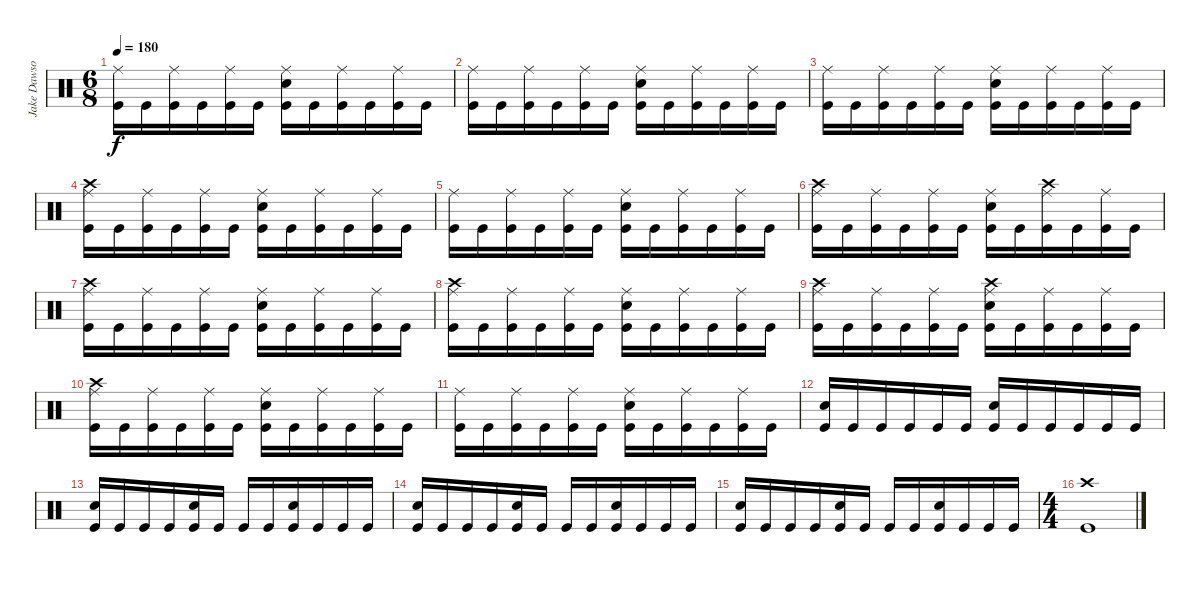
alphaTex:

\track ("Jake Dawson" "Jake Dawso") {instrument percussion}
\staff {score}
\articulation defaults
\ts (6 8)
\tempo 180
\clef neutral
\ks c
("Ride (middle)" "Kick (hit)").16{dy f} "Kick (hit)".16 ("Ride (middle)" "Kick (hit)").16 "Kick (hit)".16 ("Ride (middle)" "Kick (hit)").16 "Kick (hit)".16 ("Ride (middle)" "Snare (hit) 2" "Kick (hit)").16 "Kick (hit)".16 ("Ride (middle)" "Kick (hit)").16 "Kick (hit)".16 ("Ride (middle)" "Kick (hit)").16 "Kick (hit)".16 |
("Ride (middle)" "Kick (hit)").16 "Kick (hit)".16 ("Ride (middle)" "Kick (hit)").16 "Kick (hit)".16 ("Ride (middle)" "Kick (hit)").16 "Kick (hit)".16 ("Ride (middle)" "Snare (hit) 2" "Kick (hit)").16 "Kick (hit)".16 ("Ride (middle)" "Kick (hit)").16 "Kick (hit)".16 ("Ride (middle)" "Kick (hit)").16 "Kick (hit)".16 |
("Ride (middle)" "Kick (hit)").16 "Kick (hit)".16 ("Ride (middle)" "Kick (hit)").16 "Kick (hit)".16 ("Ride (middle)" "Kick (hit)").16 "Kick (hit)".16 ("Ride (middle)" "Snare (hit) 2" "Kick (hit)").16 "Kick (hit)".16 ("Ride (middle)" "Kick (hit)").16 "Kick (hit)".16 ("Ride (middle)" "Kick (hit)").16 "Kick (hit)".16 |
("Crash high (hit)" "Ride (middle)" "Kick (hit)").16 "Kick (hit)".16 ("Ride (middle)" "Kick (hit)").16 "Kick (hit)".16 ("Ride (middle)" "Kick (hit)").16 "Kick (hit)".16 ("Ride (middle)" "Snare (hit) 2" "Kick (hit)").16 "Kick (hit)".16 ("Ride (middle)" "Kick (hit)").16 "Kick (hit)".16 ("Ride (middle)" "Kick (hit)").16 "Kick (hit)".16 |
("Ride (middle)" "Kick (hit)").16 "Kick (hit)".16 ("Ride (middle)" "Kick (hit)").16 "Kick (hit)".16 ("Ride (middle)" "Kick (hit)").16 "Kick (hit)".16 ("Ride (middle)" "Snare (hit) 2" "Kick (hit)").16 "Kick (hit)".16 ("Ride (middle)" "Kick (hit)").16 "Kick (hit)".16 ("Ride (middle)" "Kick (hit)").16 "Kick (hit)".16 |
("Crash high (hit)" "Ride (middle)" "Kick (hit)").16 "Kick (hit)".16 ("Ride (middle)" "Kick (hit)").16 "Kick (hit)".16 ("Ride (middle)" "Kick (hit)").16 "Kick (hit)".16 ("Ride (middle)" "Snare (hit) 2" "Kick (hit)").16 "Kick (hit)".16 ("Crash high (hit)" "Ride (middle)" "Kick (hit)").16 "Kick (hit)".16 ("Ride (middle)" "Kick (hit)").16 "Kick (hit)".16 |
("Crash high (hit)" "Ride (middle)" "Kick (hit)").16 "Kick (hit)".16 ("Ride (middle)" "Kick (hit)").16 "Kick (hit)".16 ("Ride (middle)" "Kick (hit)").16 "Kick (hit)".16 ("Ride (middle)" "Snare (hit) 2" "Kick (hit)").16 "Kick (hit)".16 ("Ride (middle)" "Kick (hit)").16 "Kick (hit)".16 ("Ride (middle)" "Kick (hit)").16 "Kick (hit)".16 |
("Crash high (hit)" "Ride (middle)" "Kick (hit)").16 "Kick (hit)".16 ("Ride (middle)" "Kick (hit)").16 "Kick (hit)".16 ("Ride (middle)" "Kick (hit)").16 "Kick (hit)".16 ("Ride (middle)" "Snare (hit) 2" "Kick (hit)").16 "Kick (hit)".16 ("Ride (middle)" "Kick (hit)").16 "Kick (hit)".16 ("Ride (middle)" "Kick (hit)").16 "Kick (hit)".16 |
("Crash high (hit)" "Ride (middle)" "Kick (hit)").16 "Kick (hit)".16 ("Ride (middle)" "Kick (hit)").16 "Kick (hit)".16 ("Ride (middle)" "Kick (hit)").16 "Kick (hit)".16 ("Crash high (hit)" "Ride (middle)" "Snare (hit) 2" "Kick (hit)").16 "Kick (hit)".16 ("Ride (middle)" "Kick (hit)").16 "Kick (hit)".16 ("Ride (middle)" "Kick (hit)").16 "Kick (hit)".16 |
("Crash high (hit)" "Ride (middle)" "Kick (hit)").16 "Kick (hit)".16 ("Ride (middle)" "Kick (hit)").16 "Kick (hit)".16 ("Ride (middle)" "Kick (hit)").16 "Kick (hit)".16 ("Ride (middle)" "Snare (hit) 2" "Kick (hit)").16 "Kick (hit)".16 ("Ride (middle)" "Kick (hit)").16 "Kick (hit)".16 ("Ride (middle)" "Kick (hit)").16 "Kick (hit)".16 |
("Ride (middle)" "Kick (hit)").16 "Kick (hit)".16 ("Ride (middle)" "Kick (hit)").16 "Kick (hit)".16 ("Ride (middle)" "Kick (hit)").16 "Kick (hit)".16 ("Ride (middle)" "Snare (hit) 2" "Kick (hit)").16 "Kick (hit)".16 ("Ride (middle)" "Kick (hit)").16 "Kick (hit)".16 ("Ride (middle)" "Kick (hit)").16 "Kick (hit)".16 |
("Snare (hit) 2" "Kick (hit)").16 "Kick (hit)".16 "Kick (hit)".16 "Kick (hit)".16 "Kick (hit)".16 "Kick (hit)".16 ("Snare (hit) 2" "Kick (hit)").16 "Kick (hit)".16 "Kick (hit)".16 "Kick (hit)".16 "Kick (hit)".16 "Kick (hit)".16 |
("Snare (hit) 2" "Kick (hit)").16 "Kick (hit)".16 "Kick (hit)".16 "Kick (hit)".16 ("Snare (hit) 2" "Kick (hit)").16 "Kick (hit)".16 "Kick (hit)".16 "Kick (hit)".16 ("Snare (hit) 2" "Kick (hit)").16 "Kick (hit)".16 "Kick (hit)".16 "Kick (hit)".16 |
("Snare (hit) 2" "Kick (hit)").16 "Kick (hit)".16 "Kick (hit)".16 "Kick (hit)".16 ("Snare (hit) 2" "Kick (hit)").16 "Kick (hit)".16 "Kick (hit)".16 "Kick (hit)".16 ("Snare (hit) 2" "Kick (hit)").16 "Kick (hit)".16 "Kick (hit)".16 "Kick (hit)".16 |
("Snare (hit) 2" "Kick (hit)").16 "Kick (hit)".16 "Kick (hit)".16 "Kick (hit)".16 ("Snare (hit) 2" "Kick (hit)").16 "Kick (hit)".16 "Kick (hit)".16 "Kick (hit)".16 ("Snare (hit) 2" "Kick (hit)").16 "Kick (hit)".16 "Kick (hit)".16 "Kick (hit)".16 |
\ts (4 4)
("Crash high (hit)" "Kick (hit)").1
